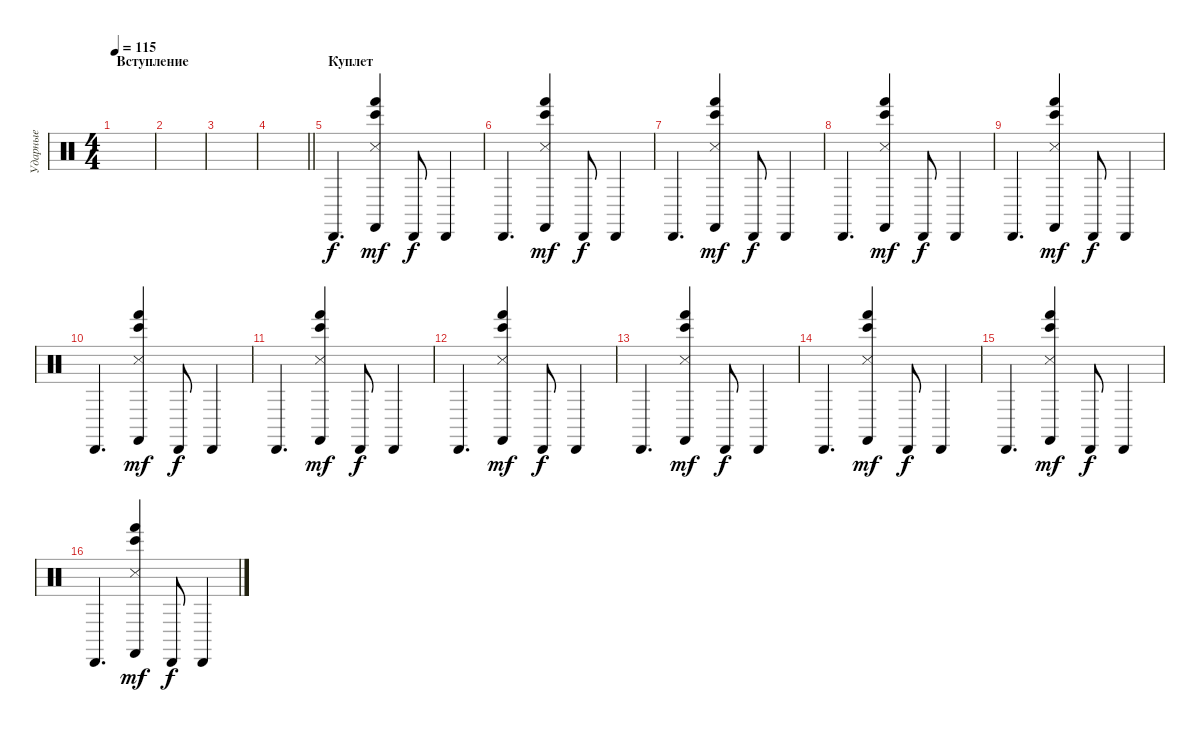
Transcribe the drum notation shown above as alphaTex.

\track ("Ударные" "Ударные") {instrument percussion}
\staff {score}
\articulation defaults
\ts (4 4)
\section ("" "Вступление")
\tempo 115
\clef neutral
\ks c
|
|
|
\barLineRight lightlight
|
\section ("" "Куплет")
"Cabasa (hit)".4{d} ("Castanets (hit)" "Hand (hit)" "Snare (side stick) 3" "Bongo High (hit)").4{dy mf} "Cabasa (hit)".8{dy f} "Cabasa (hit)".4 |
"Cabasa (hit)".4{d} ("Castanets (hit)" "Hand (hit)" "Snare (side stick) 3" "Bongo High (hit)").4{dy mf} "Cabasa (hit)".8{dy f} "Cabasa (hit)".4 |
"Cabasa (hit)".4{d} ("Castanets (hit)" "Hand (hit)" "Snare (side stick) 3" "Bongo High (hit)").4{dy mf} "Cabasa (hit)".8{dy f} "Cabasa (hit)".4 |
"Cabasa (hit)".4{d} ("Castanets (hit)" "Hand (hit)" "Snare (side stick) 3" "Bongo High (hit)").4{dy mf} "Cabasa (hit)".8{dy f} "Cabasa (hit)".4 |
"Cabasa (hit)".4{d} ("Castanets (hit)" "Hand (hit)" "Snare (side stick) 3" "Bongo High (hit)").4{dy mf} "Cabasa (hit)".8{dy f} "Cabasa (hit)".4 |
"Cabasa (hit)".4{d} ("Castanets (hit)" "Hand (hit)" "Snare (side stick) 3" "Bongo High (hit)").4{dy mf} "Cabasa (hit)".8{dy f} "Cabasa (hit)".4 |
"Cabasa (hit)".4{d} ("Castanets (hit)" "Hand (hit)" "Snare (side stick) 3" "Bongo High (hit)").4{dy mf} "Cabasa (hit)".8{dy f} "Cabasa (hit)".4 |
"Cabasa (hit)".4{d} ("Castanets (hit)" "Hand (hit)" "Snare (side stick) 3" "Bongo High (hit)").4{dy mf} "Cabasa (hit)".8{dy f} "Cabasa (hit)".4 |
"Cabasa (hit)".4{d} ("Castanets (hit)" "Hand (hit)" "Snare (side stick) 3" "Bongo High (hit)").4{dy mf} "Cabasa (hit)".8{dy f} "Cabasa (hit)".4 |
"Cabasa (hit)".4{d} ("Castanets (hit)" "Hand (hit)" "Snare (side stick) 3" "Bongo High (hit)").4{dy mf} "Cabasa (hit)".8{dy f} "Cabasa (hit)".4 |
"Cabasa (hit)".4{d} ("Castanets (hit)" "Hand (hit)" "Snare (side stick) 3" "Bongo High (hit)").4{dy mf} "Cabasa (hit)".8{dy f} "Cabasa (hit)".4 |
"Cabasa (hit)".4{d} ("Castanets (hit)" "Hand (hit)" "Snare (side stick) 3" "Bongo High (hit)").4{dy mf} "Cabasa (hit)".8{dy f} "Cabasa (hit)".4
